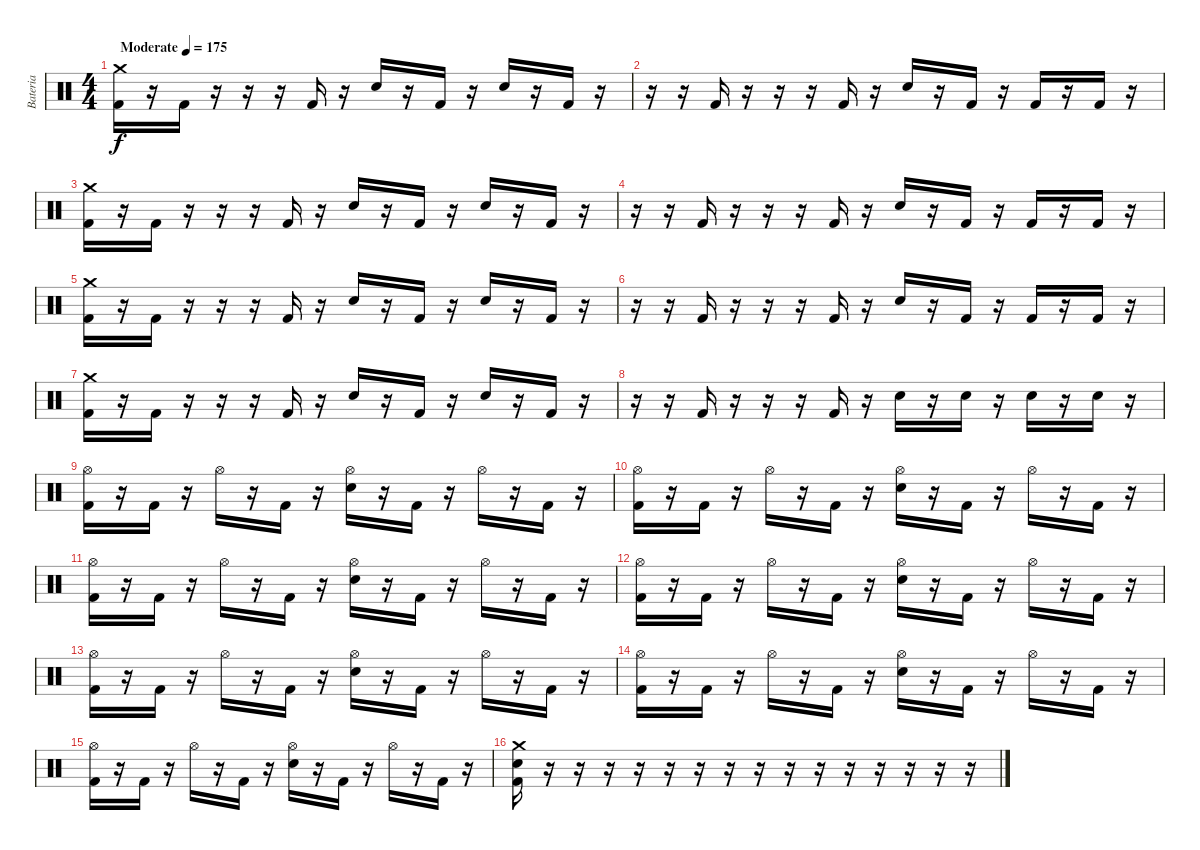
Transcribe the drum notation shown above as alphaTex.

\track ("Bateria" "Bateria") {instrument percussion}
\staff {score}
\articulation defaults
\ts (4 4)
\tempo (175 "Moderate")
\clef neutral
\ks c
("Crash medium (hit)" "Kick (hit) 2").16{dy f} r.16 "Kick (hit) 2".16 r.16 r.16 r.16 "Kick (hit) 2".16 r.16 "Snare (hit) 2".16 r.16 "Kick (hit) 2".16 r.16 "Snare (hit) 2".16 r.16 "Kick (hit) 2".16 r.16 |
r.16 r.16 "Kick (hit) 2".16 r.16 r.16 r.16 "Kick (hit) 2".16 r.16 "Snare (hit) 2".16 r.16 "Kick (hit) 2".16 r.16 "Kick (hit) 2".16 r.16 "Kick (hit) 2".16 r.16 |
("Crash medium (hit)" "Kick (hit) 2").16 r.16 "Kick (hit) 2".16 r.16 r.16 r.16 "Kick (hit) 2".16 r.16 "Snare (hit) 2".16 r.16 "Kick (hit) 2".16 r.16 "Snare (hit) 2".16 r.16 "Kick (hit) 2".16 r.16 |
r.16 r.16 "Kick (hit) 2".16 r.16 r.16 r.16 "Kick (hit) 2".16 r.16 "Snare (hit) 2".16 r.16 "Kick (hit) 2".16 r.16 "Kick (hit) 2".16 r.16 "Kick (hit) 2".16 r.16 |
("Crash medium (hit)" "Kick (hit) 2").16 r.16 "Kick (hit) 2".16 r.16 r.16 r.16 "Kick (hit) 2".16 r.16 "Snare (hit) 2".16 r.16 "Kick (hit) 2".16 r.16 "Snare (hit) 2".16 r.16 "Kick (hit) 2".16 r.16 |
r.16 r.16 "Kick (hit) 2".16 r.16 r.16 r.16 "Kick (hit) 2".16 r.16 "Snare (hit) 2".16 r.16 "Kick (hit) 2".16 r.16 "Kick (hit) 2".16 r.16 "Kick (hit) 2".16 r.16 |
("Crash medium (hit)" "Kick (hit) 2").16 r.16 "Kick (hit) 2".16 r.16 r.16 r.16 "Kick (hit) 2".16 r.16 "Snare (hit) 2".16 r.16 "Kick (hit) 2".16 r.16 "Snare (hit) 2".16 r.16 "Kick (hit) 2".16 r.16 |
r.16 r.16 "Kick (hit) 2".16 r.16 r.16 r.16 "Kick (hit) 2".16 r.16 "Snare (hit) 2".16 r.16 "Snare (hit) 2".16 r.16 "Snare (hit) 2".16 r.16 "Snare (hit) 2".16 r.16 |
("Hi-Hat (open)" "Kick (hit) 2").16 r.16 "Kick (hit) 2".16 r.16 "Hi-Hat (open)".16 r.16 "Kick (hit) 2".16 r.16 ("Hi-Hat (open)" "Snare (hit) 2").16 r.16 "Kick (hit) 2".16 r.16 "Hi-Hat (open)".16 r.16 "Kick (hit) 2".16 r.16 |
("Hi-Hat (open)" "Kick (hit) 2").16 r.16 "Kick (hit) 2".16 r.16 "Hi-Hat (open)".16 r.16 "Kick (hit) 2".16 r.16 ("Hi-Hat (open)" "Snare (hit) 2").16 r.16 "Kick (hit) 2".16 r.16 "Hi-Hat (open)".16 r.16 "Kick (hit) 2".16 r.16 |
("Hi-Hat (open)" "Kick (hit) 2").16 r.16 "Kick (hit) 2".16 r.16 "Hi-Hat (open)".16 r.16 "Kick (hit) 2".16 r.16 ("Hi-Hat (open)" "Snare (hit) 2").16 r.16 "Kick (hit) 2".16 r.16 "Hi-Hat (open)".16 r.16 "Kick (hit) 2".16 r.16 |
("Hi-Hat (open)" "Kick (hit) 2").16 r.16 "Kick (hit) 2".16 r.16 "Hi-Hat (open)".16 r.16 "Kick (hit) 2".16 r.16 ("Hi-Hat (open)" "Snare (hit) 2").16 r.16 "Kick (hit) 2".16 r.16 "Hi-Hat (open)".16 r.16 "Kick (hit) 2".16 r.16 |
("Hi-Hat (open)" "Kick (hit) 2").16 r.16 "Kick (hit) 2".16 r.16 "Hi-Hat (open)".16 r.16 "Kick (hit) 2".16 r.16 ("Hi-Hat (open)" "Snare (hit) 2").16 r.16 "Kick (hit) 2".16 r.16 "Hi-Hat (open)".16 r.16 "Kick (hit) 2".16 r.16 |
("Hi-Hat (open)" "Kick (hit) 2").16 r.16 "Kick (hit) 2".16 r.16 "Hi-Hat (open)".16 r.16 "Kick (hit) 2".16 r.16 ("Hi-Hat (open)" "Snare (hit) 2").16 r.16 "Kick (hit) 2".16 r.16 "Hi-Hat (open)".16 r.16 "Kick (hit) 2".16 r.16 |
("Hi-Hat (open)" "Kick (hit) 2").16 r.16 "Kick (hit) 2".16 r.16 "Hi-Hat (open)".16 r.16 "Kick (hit) 2".16 r.16 ("Hi-Hat (open)" "Snare (hit) 2").16 r.16 "Kick (hit) 2".16 r.16 "Hi-Hat (open)".16 r.16 "Kick (hit) 2".16 r.16 |
("Crash medium (hit)" "Snare (hit) 2" "Kick (hit) 2").16 r.16 r.16 r.16 r.16 r.16 r.16 r.16 r.16 r.16 r.16 r.16 r.16 r.16 r.16 r.16
